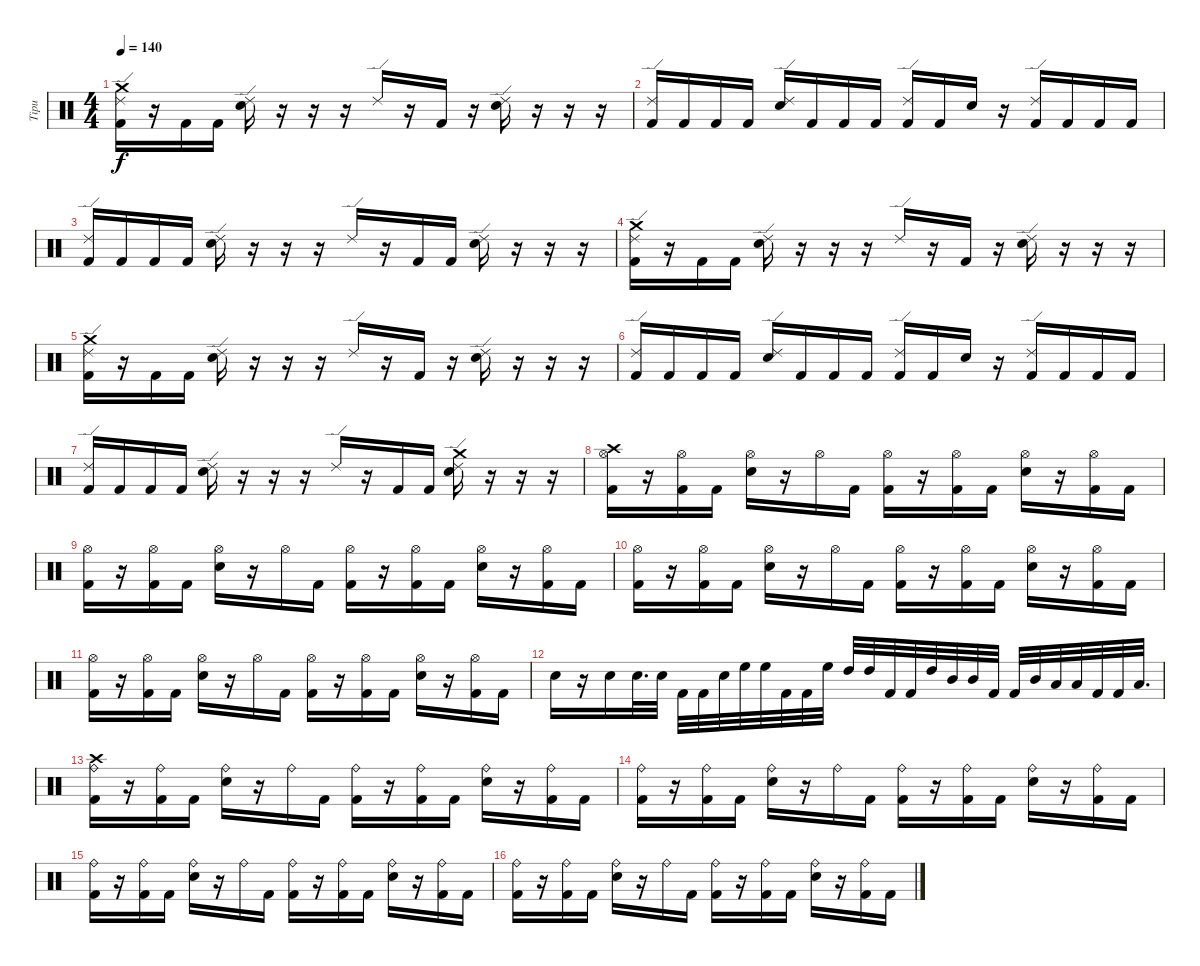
\track ("Tipu" "Tipu") {instrument percussion}
\staff {score}
\articulation defaults
\ts (4 4)
\tempo 140
\clef neutral
\ks c
("Kick (hit) 2" "Ride (edge) 2" "Crash medium (hit)").16{dy f} r.16 "Kick (hit) 2".16 "Kick (hit) 2".16 ("Electric Snare (hit)" "Ride (edge) 2").16 r.16 r.16 r.16 "Ride (edge) 2".16 r.16 "Kick (hit) 2".16 r.16 ("Electric Snare (hit)" "Ride (edge) 2").16 r.16 r.16 r.16 |
("Kick (hit) 2" "Ride (edge) 2").16 "Kick (hit) 2".16 "Kick (hit) 2".16 "Kick (hit) 2".16 ("Electric Snare (hit)" "Ride (edge) 2").16 "Kick (hit) 2".16 "Kick (hit) 2".16 "Kick (hit) 2".16 ("Kick (hit) 2" "Ride (edge) 2").16 "Kick (hit) 2".16 "Electric Snare (hit)".16 r.16 ("Kick (hit) 2" "Ride (edge) 2").16 "Kick (hit) 2".16 "Kick (hit) 2".16 "Kick (hit) 2".16 |
("Kick (hit) 2" "Ride (edge) 2").16 "Kick (hit) 2".16 "Kick (hit) 2".16 "Kick (hit) 2".16 ("Electric Snare (hit)" "Ride (edge) 2").16 r.16 r.16 r.16 "Ride (edge) 2".16 r.16 "Kick (hit) 2".16 "Kick (hit) 2".16 ("Electric Snare (hit)" "Ride (edge) 2").16 r.16 r.16 r.16 |
("Kick (hit) 2" "Ride (edge) 2" "Crash medium (hit)").16 r.16 "Kick (hit) 2".16 "Kick (hit) 2".16 ("Electric Snare (hit)" "Ride (edge) 2").16 r.16 r.16 r.16 "Ride (edge) 2".16 r.16 "Kick (hit) 2".16 r.16 ("Electric Snare (hit)" "Ride (edge) 2").16 r.16 r.16 r.16 |
("Kick (hit) 2" "Ride (edge) 2" "Crash medium (hit)").16 r.16 "Kick (hit) 2".16 "Kick (hit) 2".16 ("Electric Snare (hit)" "Ride (edge) 2").16 r.16 r.16 r.16 "Ride (edge) 2".16 r.16 "Kick (hit) 2".16 r.16 ("Electric Snare (hit)" "Ride (edge) 2").16 r.16 r.16 r.16 |
("Kick (hit) 2" "Ride (edge) 2").16 "Kick (hit) 2".16 "Kick (hit) 2".16 "Kick (hit) 2".16 ("Electric Snare (hit)" "Ride (edge) 2").16 "Kick (hit) 2".16 "Kick (hit) 2".16 "Kick (hit) 2".16 ("Kick (hit) 2" "Ride (edge) 2").16 "Kick (hit) 2".16 "Electric Snare (hit)".16 r.16 ("Kick (hit) 2" "Ride (edge) 2").16 "Kick (hit) 2".16 "Kick (hit) 2".16 "Kick (hit) 2".16 |
("Kick (hit) 2" "Ride (edge) 2").16 "Kick (hit) 2".16 "Kick (hit) 2".16 "Kick (hit) 2".16 ("Electric Snare (hit)" "Ride (edge) 2").16 r.16 r.16 r.16 "Ride (edge) 2".16 r.16 "Kick (hit) 2".16 "Kick (hit) 2".16 ("Electric Snare (hit)" "Ride (edge) 2" "Crash medium (hit)").16 r.16 r.16 r.16 |
("Crash high (hit)" "Hi-Hat (open)" "Kick (hit) 2").16 r.16 ("Hi-Hat (open)" "Kick (hit) 2").16 "Kick (hit) 2".16 ("Hi-Hat (open)" "Electric Snare (hit)").16 r.16 "Hi-Hat (open)".16 "Kick (hit) 2".16 ("Hi-Hat (open)" "Kick (hit) 2").16 r.16 ("Hi-Hat (open)" "Kick (hit) 2").16 "Kick (hit) 2".16 ("Hi-Hat (open)" "Electric Snare (hit)").16 r.16 ("Hi-Hat (open)" "Kick (hit) 2").16 "Kick (hit) 2".16 |
("Hi-Hat (open)" "Kick (hit) 2").16 r.16 ("Hi-Hat (open)" "Kick (hit) 2").16 "Kick (hit) 2".16 ("Hi-Hat (open)" "Electric Snare (hit)").16 r.16 "Hi-Hat (open)".16 "Kick (hit) 2".16 ("Hi-Hat (open)" "Kick (hit) 2").16 r.16 ("Hi-Hat (open)" "Kick (hit) 2").16 "Kick (hit) 2".16 ("Hi-Hat (open)" "Electric Snare (hit)").16 r.16 ("Hi-Hat (open)" "Kick (hit) 2").16 "Kick (hit) 2".16 |
("Hi-Hat (open)" "Kick (hit) 2").16 r.16 ("Hi-Hat (open)" "Kick (hit) 2").16 "Kick (hit) 2".16 ("Hi-Hat (open)" "Electric Snare (hit)").16 r.16 "Hi-Hat (open)".16 "Kick (hit) 2".16 ("Hi-Hat (open)" "Kick (hit) 2").16 r.16 ("Hi-Hat (open)" "Kick (hit) 2").16 "Kick (hit) 2".16 ("Hi-Hat (open)" "Electric Snare (hit)").16 r.16 ("Hi-Hat (open)" "Kick (hit) 2").16 "Kick (hit) 2".16 |
("Hi-Hat (open)" "Kick (hit) 2").16 r.16 ("Hi-Hat (open)" "Kick (hit) 2").16 "Kick (hit) 2".16 ("Hi-Hat (open)" "Electric Snare (hit)").16 r.16 "Hi-Hat (open)".16 "Kick (hit) 2".16 ("Hi-Hat (open)" "Kick (hit) 2").16 r.16 ("Hi-Hat (open)" "Kick (hit) 2").16 "Kick (hit) 2".16 ("Hi-Hat (open)" "Electric Snare (hit)").16 r.16 ("Hi-Hat (open)" "Kick (hit) 2").16 "Kick (hit) 2".16 |
"Electric Snare (hit)".16 r.16 "Electric Snare (hit)".16 "Electric Snare (hit)".32{d} "Electric Snare (hit)".32 "Kick (hit) 2".32 "Kick (hit) 2".32 "Electric Snare (hit)".32 "High Floor Tom (hit)".32 "High Floor Tom (hit)".32 "Kick (hit) 2".32 "Kick (hit) 2".32 "High Floor Tom (hit)".32 "High Tom (hit)".32 "High Tom (hit)".32 "Kick (hit) 2".32 "Kick (hit) 2".32 "High Tom (hit)".32 "Mid Tom (hit)".32 "Mid Tom (hit)".32 "Kick (hit) 2".32 "Kick (hit) 2".32 "Mid Tom (hit)".32 "Low Tom (hit)".32 "Low Tom (hit)".32 "Kick (hit) 2".32 "Kick (hit) 2".32 "Low Tom (hit)".32{d} |
("Crash high (hit)" "Ride (bell)" "Kick (hit) 2").16 r.16 ("Ride (bell)" "Kick (hit) 2").16 "Kick (hit) 2".16 ("Ride (bell)" "Electric Snare (hit)").16 r.16 "Ride (bell)".16 "Kick (hit) 2".16 ("Ride (bell)" "Kick (hit) 2").16 r.16 ("Ride (bell)" "Kick (hit) 2").16 "Kick (hit) 2".16 ("Ride (bell)" "Electric Snare (hit)").16 r.16 ("Ride (bell)" "Kick (hit) 2").16 "Kick (hit) 2".16 |
("Ride (bell)" "Kick (hit) 2").16 r.16 ("Ride (bell)" "Kick (hit) 2").16 "Kick (hit) 2".16 ("Ride (bell)" "Electric Snare (hit)").16 r.16 "Ride (bell)".16 "Kick (hit) 2".16 ("Ride (bell)" "Kick (hit) 2").16 r.16 ("Ride (bell)" "Kick (hit) 2").16 "Kick (hit) 2".16 ("Ride (bell)" "Electric Snare (hit)").16 r.16 ("Ride (bell)" "Kick (hit) 2").16 "Kick (hit) 2".16 |
("Ride (bell)" "Kick (hit) 2").16 r.16 ("Ride (bell)" "Kick (hit) 2").16 "Kick (hit) 2".16 ("Ride (bell)" "Electric Snare (hit)").16 r.16 "Ride (bell)".16 "Kick (hit) 2".16 ("Ride (bell)" "Kick (hit) 2").16 r.16 ("Ride (bell)" "Kick (hit) 2").16 "Kick (hit) 2".16 ("Ride (bell)" "Electric Snare (hit)").16 r.16 ("Ride (bell)" "Kick (hit) 2").16 "Kick (hit) 2".16 |
("Ride (bell)" "Kick (hit) 2").16 r.16 ("Ride (bell)" "Kick (hit) 2").16 "Kick (hit) 2".16 ("Ride (bell)" "Electric Snare (hit)").16 r.16 "Ride (bell)".16 "Kick (hit) 2".16 ("Ride (bell)" "Kick (hit) 2").16 r.16 ("Ride (bell)" "Kick (hit) 2").16 "Kick (hit) 2".16 ("Ride (bell)" "Electric Snare (hit)").16 r.16 ("Ride (bell)" "Kick (hit) 2").16 "Kick (hit) 2".16
